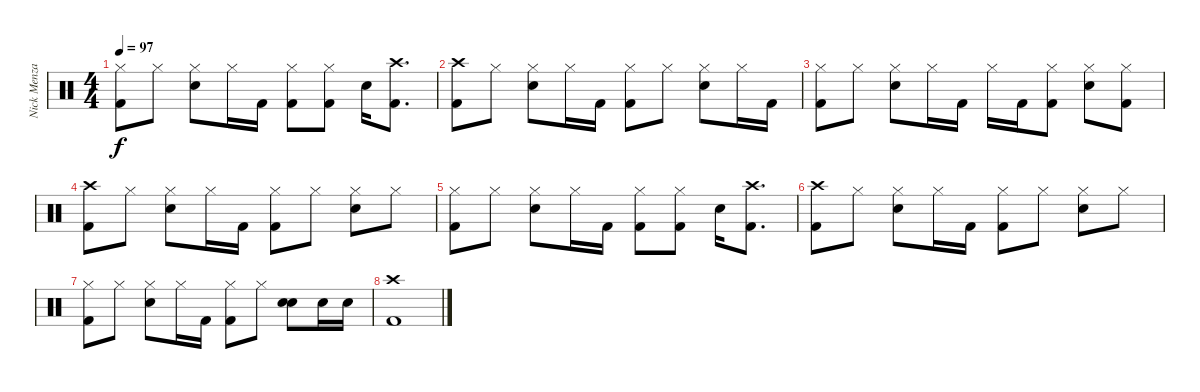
\track ("Nick Menza" "Nick Menza") {instrument percussion}
\staff {score}
\articulation defaults
\ts (4 4)
\tempo 97
\clef neutral
\ks c
("Hi-Hat (closed)" "Kick (hit) 2").8{dy f} "Hi-Hat (closed)".8 ("Hi-Hat (closed)" "Electric Snare (hit)").8 "Hi-Hat (closed)".16 "Kick (hit) 2".16 ("Hi-Hat (closed)" "Kick (hit) 2").8 ("Hi-Hat (closed)" "Kick (hit) 2").8 "Electric Snare (hit)".16 ("Crash high (hit)" "Kick (hit) 2").8{d} |
("Crash high (hit)" "Kick (hit) 2").8 "Hi-Hat (closed)".8 ("Hi-Hat (closed)" "Electric Snare (hit)").8 "Hi-Hat (closed)".16 "Kick (hit) 2".16 ("Hi-Hat (closed)" "Kick (hit) 2").8 "Hi-Hat (closed)".8 ("Hi-Hat (closed)" "Electric Snare (hit)").8 "Hi-Hat (closed)".16 "Kick (hit) 2".16 |
("Hi-Hat (closed)" "Kick (hit) 2").8 "Hi-Hat (closed)".8 ("Hi-Hat (closed)" "Electric Snare (hit)").8 "Hi-Hat (closed)".16 "Kick (hit) 2".16 "Hi-Hat (closed)".16 "Kick (hit) 2".16 ("Hi-Hat (closed)" "Kick (hit) 2").8 ("Hi-Hat (closed)" "Electric Snare (hit)").8 ("Hi-Hat (closed)" "Kick (hit) 2").8 |
("Crash high (hit)" "Kick (hit) 2").8 "Hi-Hat (closed)".8 ("Hi-Hat (closed)" "Electric Snare (hit)").8 "Hi-Hat (closed)".16 "Kick (hit) 2".16 ("Hi-Hat (closed)" "Kick (hit) 2").8 "Hi-Hat (closed)".8 ("Hi-Hat (closed)" "Electric Snare (hit)").8 "Hi-Hat (closed)".8 |
("Hi-Hat (closed)" "Kick (hit) 2").8 "Hi-Hat (closed)".8 ("Hi-Hat (closed)" "Electric Snare (hit)").8 "Hi-Hat (closed)".16 "Kick (hit) 2".16 ("Hi-Hat (closed)" "Kick (hit) 2").8 ("Hi-Hat (closed)" "Kick (hit) 2").8 "Electric Snare (hit)".16 ("Crash high (hit)" "Kick (hit) 2").8{d} |
("Crash high (hit)" "Kick (hit) 2").8 "Hi-Hat (closed)".8 ("Hi-Hat (closed)" "Electric Snare (hit)").8 "Hi-Hat (closed)".16 "Kick (hit) 2".16 ("Hi-Hat (closed)" "Kick (hit) 2").8 "Hi-Hat (closed)".8 ("Hi-Hat (closed)" "Electric Snare (hit)").8 "Hi-Hat (closed)".8 |
("Hi-Hat (closed)" "Kick (hit) 2").8 "Hi-Hat (closed)".8 ("Hi-Hat (closed)" "Electric Snare (hit)").8 "Hi-Hat (closed)".16 "Kick (hit) 2".16 ("Hi-Hat (closed)" "Kick (hit) 2").8 "Hi-Hat (closed)".8 ("Electric Snare (hit)" "Electric Snare (hit)").8 "Electric Snare (hit)".16 "Electric Snare (hit)".16 |
("Crash high (hit)" "Kick (hit) 2").1
